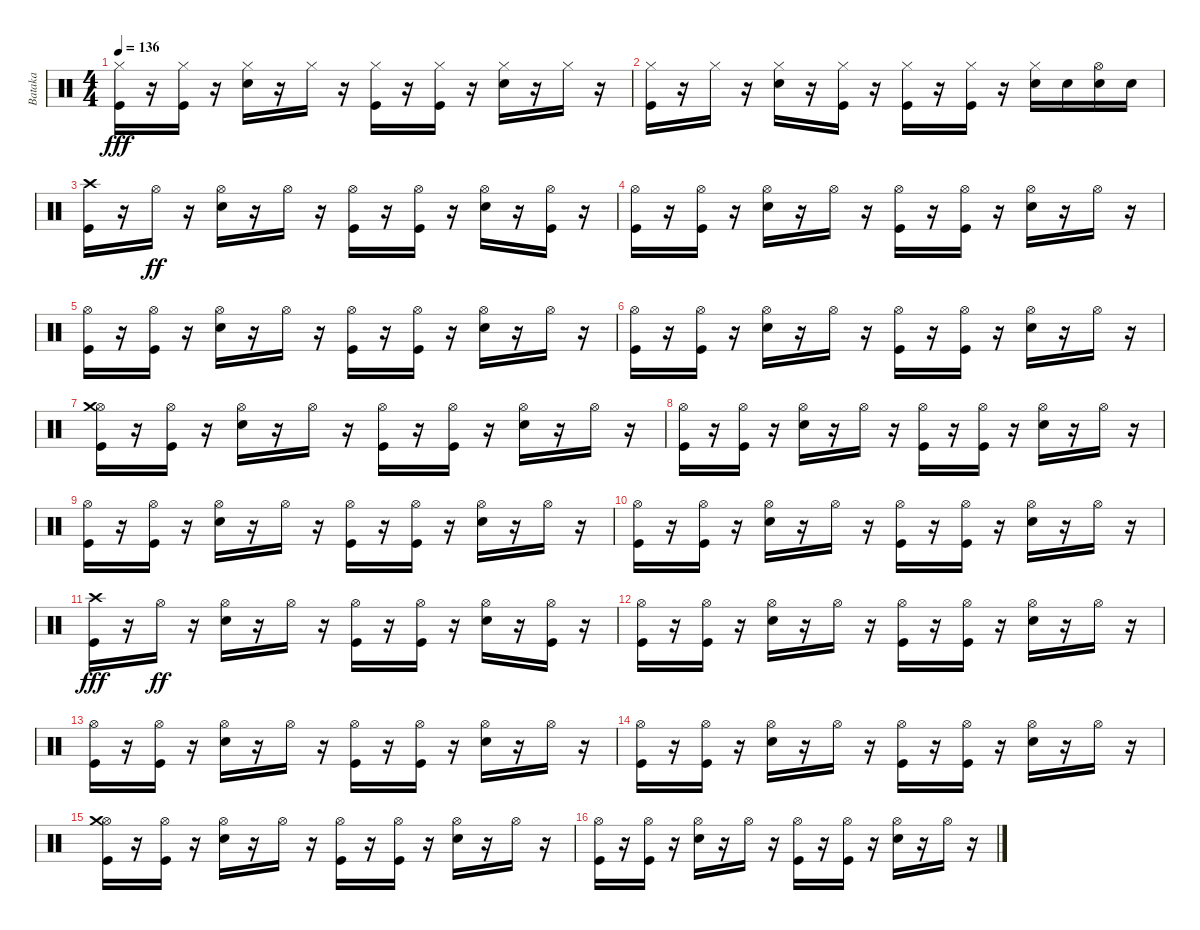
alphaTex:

\track ("Bataka" "Bataka") {instrument percussion}
\staff {score}
\articulation defaults
\ts (4 4)
\tempo 136
\clef neutral
\ks c
("Kick (hit)" "Hi-Hat (closed)").16{dy fff} r.16 ("Kick (hit)" "Hi-Hat (closed)").16 r.16 ("Snare (hit) 2" "Hi-Hat (closed)").16 r.16 "Hi-Hat (closed)".16 r.16 ("Kick (hit)" "Hi-Hat (closed)").16 r.16 ("Kick (hit)" "Hi-Hat (closed)").16 r.16 ("Snare (hit) 2" "Hi-Hat (closed)").16 r.16 "Hi-Hat (closed)".16 r.16 |
("Kick (hit)" "Hi-Hat (closed)").16 r.16 "Hi-Hat (closed)".16 r.16 ("Snare (hit) 2" "Hi-Hat (closed)").16 r.16 ("Kick (hit)" "Hi-Hat (closed)").16 r.16 ("Kick (hit)" "Hi-Hat (closed)").16 r.16 ("Kick (hit)" "Hi-Hat (closed)").16 r.16 ("Snare (hit) 2" "Hi-Hat (closed)").16 "Snare (hit) 2".16 ("Hi-Hat (open)" "Snare (hit) 2").16 "Snare (hit) 2".16 |
("Kick (hit)" "Crash high (hit)").16 r.16 "Hi-Hat (open)".16{dy ff} r.16 ("Snare (hit) 2" "Hi-Hat (open)").16 r.16 "Hi-Hat (open)".16 r.16 ("Kick (hit)" "Hi-Hat (open)").16 r.16 ("Kick (hit)" "Hi-Hat (open)").16 r.16 ("Snare (hit) 2" "Hi-Hat (open)").16 r.16 ("Kick (hit)" "Hi-Hat (open)").16 r.16 |
("Kick (hit)" "Hi-Hat (open)").16 r.16 ("Kick (hit)" "Hi-Hat (open)").16 r.16 ("Snare (hit) 2" "Hi-Hat (open)").16 r.16 "Hi-Hat (open)".16 r.16 ("Kick (hit)" "Hi-Hat (open)").16 r.16 ("Kick (hit)" "Hi-Hat (open)").16 r.16 ("Snare (hit) 2" "Hi-Hat (open)").16 r.16 "Hi-Hat (open)".16 r.16 |
("Kick (hit)" "Hi-Hat (open)").16 r.16 ("Kick (hit)" "Hi-Hat (open)").16 r.16 ("Snare (hit) 2" "Hi-Hat (open)").16 r.16 "Hi-Hat (open)".16 r.16 ("Kick (hit)" "Hi-Hat (open)").16 r.16 ("Kick (hit)" "Hi-Hat (open)").16 r.16 ("Snare (hit) 2" "Hi-Hat (open)").16 r.16 "Hi-Hat (open)".16 r.16 |
("Kick (hit)" "Hi-Hat (open)").16 r.16 ("Kick (hit)" "Hi-Hat (open)").16 r.16 ("Snare (hit) 2" "Hi-Hat (open)").16 r.16 "Hi-Hat (open)".16 r.16 ("Kick (hit)" "Hi-Hat (open)").16 r.16 ("Kick (hit)" "Hi-Hat (open)").16 r.16 ("Snare (hit) 2" "Hi-Hat (open)").16 r.16 "Hi-Hat (open)".16 r.16 |
("Kick (hit)" "Hi-Hat (open)" "Crash medium (hit)").16 r.16 ("Kick (hit)" "Hi-Hat (open)").16 r.16 ("Snare (hit) 2" "Hi-Hat (open)").16 r.16 "Hi-Hat (open)".16 r.16 ("Kick (hit)" "Hi-Hat (open)").16 r.16 ("Kick (hit)" "Hi-Hat (open)").16 r.16 ("Snare (hit) 2" "Hi-Hat (open)").16 r.16 "Hi-Hat (open)".16 r.16 |
("Kick (hit)" "Hi-Hat (open)").16 r.16 ("Kick (hit)" "Hi-Hat (open)").16 r.16 ("Snare (hit) 2" "Hi-Hat (open)").16 r.16 "Hi-Hat (open)".16 r.16 ("Kick (hit)" "Hi-Hat (open)").16 r.16 ("Kick (hit)" "Hi-Hat (open)").16 r.16 ("Snare (hit) 2" "Hi-Hat (open)").16 r.16 "Hi-Hat (open)".16 r.16 |
("Kick (hit)" "Hi-Hat (open)").16 r.16 ("Kick (hit)" "Hi-Hat (open)").16 r.16 ("Snare (hit) 2" "Hi-Hat (open)").16 r.16 "Hi-Hat (open)".16 r.16 ("Kick (hit)" "Hi-Hat (open)").16 r.16 ("Kick (hit)" "Hi-Hat (open)").16 r.16 ("Snare (hit) 2" "Hi-Hat (open)").16 r.16 "Hi-Hat (open)".16 r.16 |
("Kick (hit)" "Hi-Hat (open)").16 r.16 ("Kick (hit)" "Hi-Hat (open)").16 r.16 ("Snare (hit) 2" "Hi-Hat (open)").16 r.16 "Hi-Hat (open)".16 r.16 ("Kick (hit)" "Hi-Hat (open)").16 r.16 ("Kick (hit)" "Hi-Hat (open)").16 r.16 ("Snare (hit) 2" "Hi-Hat (open)").16 r.16 "Hi-Hat (open)".16 r.16 |
("Kick (hit)" "Crash high (hit)").16{dy fff} r.16 "Hi-Hat (open)".16{dy ff} r.16 ("Snare (hit) 2" "Hi-Hat (open)").16 r.16 "Hi-Hat (open)".16 r.16 ("Kick (hit)" "Hi-Hat (open)").16 r.16 ("Kick (hit)" "Hi-Hat (open)").16 r.16 ("Snare (hit) 2" "Hi-Hat (open)").16 r.16 ("Kick (hit)" "Hi-Hat (open)").16 r.16 |
("Kick (hit)" "Hi-Hat (open)").16 r.16 ("Kick (hit)" "Hi-Hat (open)").16 r.16 ("Snare (hit) 2" "Hi-Hat (open)").16 r.16 "Hi-Hat (open)".16 r.16 ("Kick (hit)" "Hi-Hat (open)").16 r.16 ("Kick (hit)" "Hi-Hat (open)").16 r.16 ("Snare (hit) 2" "Hi-Hat (open)").16 r.16 "Hi-Hat (open)".16 r.16 |
("Kick (hit)" "Hi-Hat (open)").16 r.16 ("Kick (hit)" "Hi-Hat (open)").16 r.16 ("Snare (hit) 2" "Hi-Hat (open)").16 r.16 "Hi-Hat (open)".16 r.16 ("Kick (hit)" "Hi-Hat (open)").16 r.16 ("Kick (hit)" "Hi-Hat (open)").16 r.16 ("Snare (hit) 2" "Hi-Hat (open)").16 r.16 "Hi-Hat (open)".16 r.16 |
("Kick (hit)" "Hi-Hat (open)").16 r.16 ("Kick (hit)" "Hi-Hat (open)").16 r.16 ("Snare (hit) 2" "Hi-Hat (open)").16 r.16 "Hi-Hat (open)".16 r.16 ("Kick (hit)" "Hi-Hat (open)").16 r.16 ("Kick (hit)" "Hi-Hat (open)").16 r.16 ("Snare (hit) 2" "Hi-Hat (open)").16 r.16 "Hi-Hat (open)".16 r.16 |
("Kick (hit)" "Hi-Hat (open)" "Crash medium (hit)").16 r.16 ("Kick (hit)" "Hi-Hat (open)").16 r.16 ("Snare (hit) 2" "Hi-Hat (open)").16 r.16 "Hi-Hat (open)".16 r.16 ("Kick (hit)" "Hi-Hat (open)").16 r.16 ("Kick (hit)" "Hi-Hat (open)").16 r.16 ("Snare (hit) 2" "Hi-Hat (open)").16 r.16 "Hi-Hat (open)".16 r.16 |
("Kick (hit)" "Hi-Hat (open)").16 r.16 ("Kick (hit)" "Hi-Hat (open)").16 r.16 ("Snare (hit) 2" "Hi-Hat (open)").16 r.16 "Hi-Hat (open)".16 r.16 ("Kick (hit)" "Hi-Hat (open)").16 r.16 ("Kick (hit)" "Hi-Hat (open)").16 r.16 ("Snare (hit) 2" "Hi-Hat (open)").16 r.16 "Hi-Hat (open)".16 r.16
